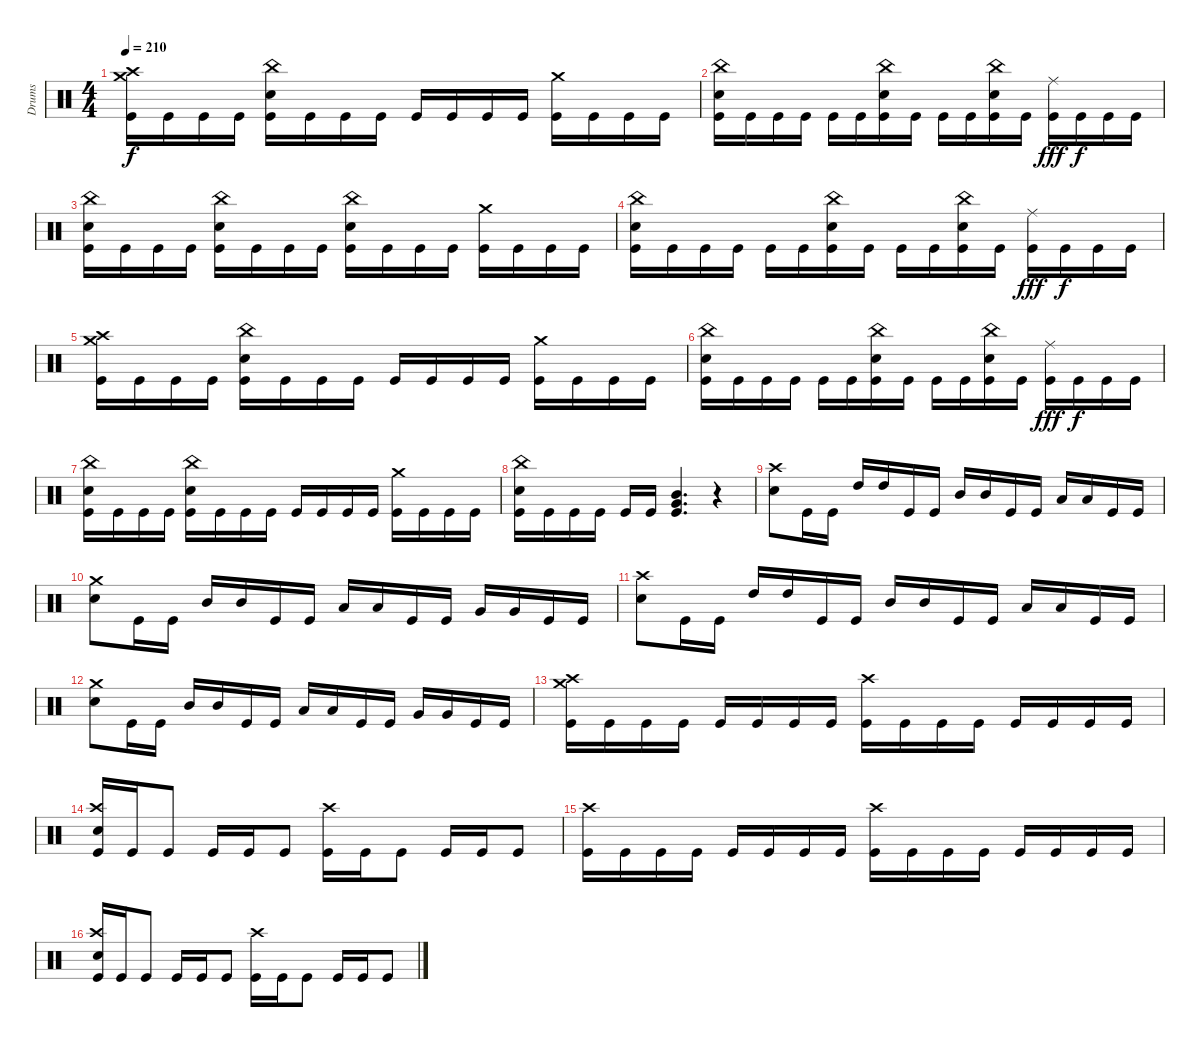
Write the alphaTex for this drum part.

\track ("Drums" "Drums") {instrument percussion}
\staff {score}
\articulation defaults
\ts (4 4)
\tempo 210
\clef neutral
\ks c
("Kick (hit)" "Crash high (hit)" "Crash medium (hit)").16{dy f} "Kick (hit)".16 "Kick (hit)".16 "Kick (hit)".16 ("Kick (hit)" "Electric Snare (hit)" "China (hit)").16 "Kick (hit)".16 "Kick (hit)".16 "Kick (hit)".16 "Kick (hit)".16 "Kick (hit)".16 "Kick (hit)".16 "Kick (hit)".16 ("Kick (hit)" "Crash medium (hit)").16 "Kick (hit)".16 "Kick (hit)".16 "Kick (hit)".16 |
("Kick (hit)" "Electric Snare (hit)" "China (hit)").16 "Kick (hit)".16 "Kick (hit)".16 "Kick (hit)".16 "Kick (hit)".16 "Kick (hit)".16 ("Kick (hit)" "Electric Snare (hit)" "China (hit)").16 "Kick (hit)".16 "Kick (hit)".16 "Kick (hit)".16 ("Kick (hit)" "Electric Snare (hit)" "China (hit)").16 "Kick (hit)".16 ("Kick (hit)" "Ride (middle)").16{dy fff} "Kick (hit)".16{dy f} "Kick (hit)".16 "Kick (hit)".16 |
("Kick (hit)" "Electric Snare (hit)" "China (hit)").16 "Kick (hit)".16 "Kick (hit)".16 "Kick (hit)".16 ("Kick (hit)" "Electric Snare (hit)" "China (hit)").16 "Kick (hit)".16 "Kick (hit)".16 "Kick (hit)".16 ("Kick (hit)" "Electric Snare (hit)" "China (hit)").16 "Kick (hit)".16 "Kick (hit)".16 "Kick (hit)".16 ("Kick (hit)" "Crash medium (hit)").16 "Kick (hit)".16 "Kick (hit)".16 "Kick (hit)".16 |
("Kick (hit)" "Electric Snare (hit)" "China (hit)").16 "Kick (hit)".16 "Kick (hit)".16 "Kick (hit)".16 "Kick (hit)".16 "Kick (hit)".16 ("Kick (hit)" "Electric Snare (hit)" "China (hit)").16 "Kick (hit)".16 "Kick (hit)".16 "Kick (hit)".16 ("Kick (hit)" "Electric Snare (hit)" "China (hit)").16 "Kick (hit)".16 ("Kick (hit)" "Ride (middle)").16{dy fff} "Kick (hit)".16{dy f} "Kick (hit)".16 "Kick (hit)".16 |
("Kick (hit)" "Crash high (hit)" "Crash medium (hit)").16 "Kick (hit)".16 "Kick (hit)".16 "Kick (hit)".16 ("Kick (hit)" "Electric Snare (hit)" "China (hit)").16 "Kick (hit)".16 "Kick (hit)".16 "Kick (hit)".16 "Kick (hit)".16 "Kick (hit)".16 "Kick (hit)".16 "Kick (hit)".16 ("Kick (hit)" "Crash medium (hit)").16 "Kick (hit)".16 "Kick (hit)".16 "Kick (hit)".16 |
("Kick (hit)" "Electric Snare (hit)" "China (hit)").16 "Kick (hit)".16 "Kick (hit)".16 "Kick (hit)".16 "Kick (hit)".16 "Kick (hit)".16 ("Kick (hit)" "Electric Snare (hit)" "China (hit)").16 "Kick (hit)".16 "Kick (hit)".16 "Kick (hit)".16 ("Kick (hit)" "Electric Snare (hit)" "China (hit)").16 "Kick (hit)".16 ("Kick (hit)" "Ride (middle)").16{dy fff} "Kick (hit)".16{dy f} "Kick (hit)".16 "Kick (hit)".16 |
("Kick (hit)" "Electric Snare (hit)" "China (hit)").16 "Kick (hit)".16 "Kick (hit)".16 "Kick (hit)".16 ("Kick (hit)" "Electric Snare (hit)" "China (hit)").16 "Kick (hit)".16 "Kick (hit)".16 "Kick (hit)".16 "Kick (hit)".16 "Kick (hit)".16 "Kick (hit)".16 "Kick (hit)".16 ("Kick (hit)" "Crash medium (hit)").16 "Kick (hit)".16 "Kick (hit)".16 "Kick (hit)".16 |
("Kick (hit)" "Electric Snare (hit)" "China (hit)").16 "Kick (hit)".16 "Kick (hit)".16 "Kick (hit)".16 "Kick (hit)".16 "Kick (hit)".16 ("Kick (hit)" "Very Low Tom (hit)" "Mid Tom (hit)").4{d} r.4 |
("Electric Snare (hit)" "Crash high (hit)").8 "Kick (hit)".16 "Kick (hit)".16 "High Tom (hit)".16 "High Tom (hit)".16 "Kick (hit)".16 "Kick (hit)".16 "Mid Tom (hit)".16 "Mid Tom (hit)".16 "Kick (hit)".16 "Kick (hit)".16 "Low Tom (hit)".16 "Low Tom (hit)".16 "Kick (hit)".16 "Kick (hit)".16 |
("Electric Snare (hit)" "Crash medium (hit)").8 "Kick (hit)".16 "Kick (hit)".16 "Mid Tom (hit)".16 "Mid Tom (hit)".16 "Kick (hit)".16 "Kick (hit)".16 "Low Tom (hit)".16 "Low Tom (hit)".16 "Kick (hit)".16 "Kick (hit)".16 "Very Low Tom (hit)".16 "Very Low Tom (hit)".16 "Kick (hit)".16 "Kick (hit)".16 |
("Electric Snare (hit)" "Crash high (hit)").8 "Kick (hit)".16 "Kick (hit)".16 "High Tom (hit)".16 "High Tom (hit)".16 "Kick (hit)".16 "Kick (hit)".16 "Mid Tom (hit)".16 "Mid Tom (hit)".16 "Kick (hit)".16 "Kick (hit)".16 "Low Tom (hit)".16 "Low Tom (hit)".16 "Kick (hit)".16 "Kick (hit)".16 |
("Electric Snare (hit)" "Crash medium (hit)").8 "Kick (hit)".16 "Kick (hit)".16 "Mid Tom (hit)".16 "Mid Tom (hit)".16 "Kick (hit)".16 "Kick (hit)".16 "Low Tom (hit)".16 "Low Tom (hit)".16 "Kick (hit)".16 "Kick (hit)".16 "Very Low Tom (hit)".16 "Very Low Tom (hit)".16 "Kick (hit)".16 "Kick (hit)".16 |
("Kick (hit)" "Crash high (hit)" "Crash medium (hit)").16 "Kick (hit)".16 "Kick (hit)".16 "Kick (hit)".16 "Kick (hit)".16 "Kick (hit)".16 "Kick (hit)".16 "Kick (hit)".16 ("Kick (hit)" "Crash high (hit)").16 "Kick (hit)".16 "Kick (hit)".16 "Kick (hit)".16 "Kick (hit)".16 "Kick (hit)".16 "Kick (hit)".16 "Kick (hit)".16 |
("Kick (hit)" "Electric Snare (hit)" "Crash high (hit)").16 "Kick (hit)".16 "Kick (hit)".8 "Kick (hit)".16 "Kick (hit)".16 "Kick (hit)".8 ("Kick (hit)" "Crash high (hit)").16 "Kick (hit)".16 "Kick (hit)".8 "Kick (hit)".16 "Kick (hit)".16 "Kick (hit)".8 |
("Kick (hit)" "Crash high (hit)").16 "Kick (hit)".16 "Kick (hit)".16 "Kick (hit)".16 "Kick (hit)".16 "Kick (hit)".16 "Kick (hit)".16 "Kick (hit)".16 ("Kick (hit)" "Crash high (hit)").16 "Kick (hit)".16 "Kick (hit)".16 "Kick (hit)".16 "Kick (hit)".16 "Kick (hit)".16 "Kick (hit)".16 "Kick (hit)".16 |
("Kick (hit)" "Electric Snare (hit)" "Crash high (hit)").16 "Kick (hit)".16 "Kick (hit)".8 "Kick (hit)".16 "Kick (hit)".16 "Kick (hit)".8 ("Kick (hit)" "Crash high (hit)").16 "Kick (hit)".16 "Kick (hit)".8 "Kick (hit)".16 "Kick (hit)".16 "Kick (hit)".8
